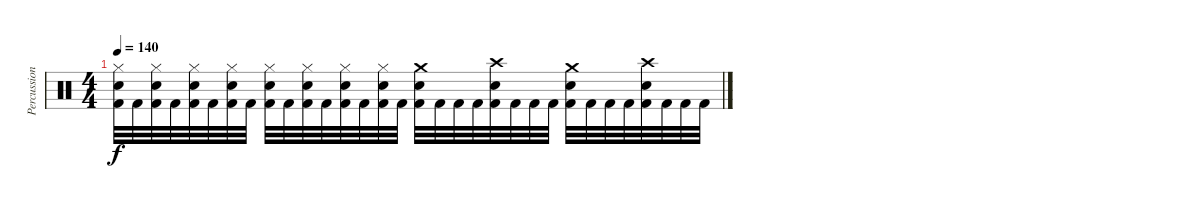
\track ("Percussion" "Percussion") {instrument percussion}
\staff {score}
\articulation defaults
\ts (4 4)
\tempo 140
\clef neutral
\ks c
("Hi-Hat (closed)" "Electric Snare (hit)" "Kick (hit) 2").32{dy f} "Kick (hit) 2".32 ("Hi-Hat (closed)" "Electric Snare (hit)" "Kick (hit) 2").32 "Kick (hit) 2".32 ("Hi-Hat (closed)" "Electric Snare (hit)" "Kick (hit) 2").32 "Kick (hit) 2".32 ("Hi-Hat (closed)" "Electric Snare (hit)" "Kick (hit) 2").32 "Kick (hit) 2".32 ("Hi-Hat (closed)" "Electric Snare (hit)" "Kick (hit) 2").32 "Kick (hit) 2".32 ("Hi-Hat (closed)" "Electric Snare (hit)" "Kick (hit) 2").32 "Kick (hit) 2".32 ("Hi-Hat (closed)" "Electric Snare (hit)" "Kick (hit) 2").32 "Kick (hit) 2".32 ("Hi-Hat (closed)" "Electric Snare (hit)" "Kick (hit) 2").32 "Kick (hit) 2".32 ("Crash medium (hit)" "Electric Snare (hit)" "Kick (hit) 2").32 "Kick (hit) 2".32 "Kick (hit) 2".32 "Kick (hit) 2".32 ("Crash high (hit)" "Electric Snare (hit)" "Kick (hit) 2").32 "Kick (hit) 2".32 "Kick (hit) 2".32 "Kick (hit) 2".32 ("Crash medium (hit)" "Electric Snare (hit)" "Kick (hit) 2").32 "Kick (hit) 2".32 "Kick (hit) 2".32 "Kick (hit) 2".32 ("Crash high (hit)" "Electric Snare (hit)" "Kick (hit) 2").32 "Kick (hit) 2".32 "Kick (hit) 2".32 "Kick (hit) 2".32
